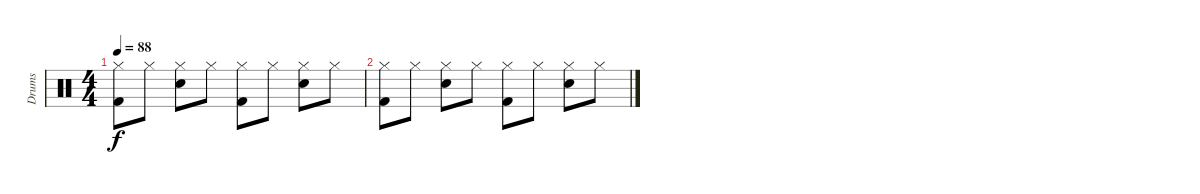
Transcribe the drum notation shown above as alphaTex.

\track ("Drums" "Drums") {instrument percussion}
\staff {score}
\articulation defaults
\ts (4 4)
\tempo 88
\clef neutral
\ks c
("Kick (hit) 2" "Hi-Hat (closed)").8{dy f} "Hi-Hat (closed)".8 ("Snare (hit) 2" "Hi-Hat (closed)").8 "Hi-Hat (closed)".8 ("Kick (hit) 2" "Hi-Hat (closed)").8 "Hi-Hat (closed)".8 ("Snare (hit) 2" "Hi-Hat (closed)").8 "Hi-Hat (closed)".8 |
("Kick (hit) 2" "Hi-Hat (closed)").8 "Hi-Hat (closed)".8 ("Snare (hit) 2" "Hi-Hat (closed)").8 "Hi-Hat (closed)".8 ("Kick (hit) 2" "Hi-Hat (closed)").8 "Hi-Hat (closed)".8 ("Snare (hit) 2" "Hi-Hat (closed)").8 "Hi-Hat (closed)".8
